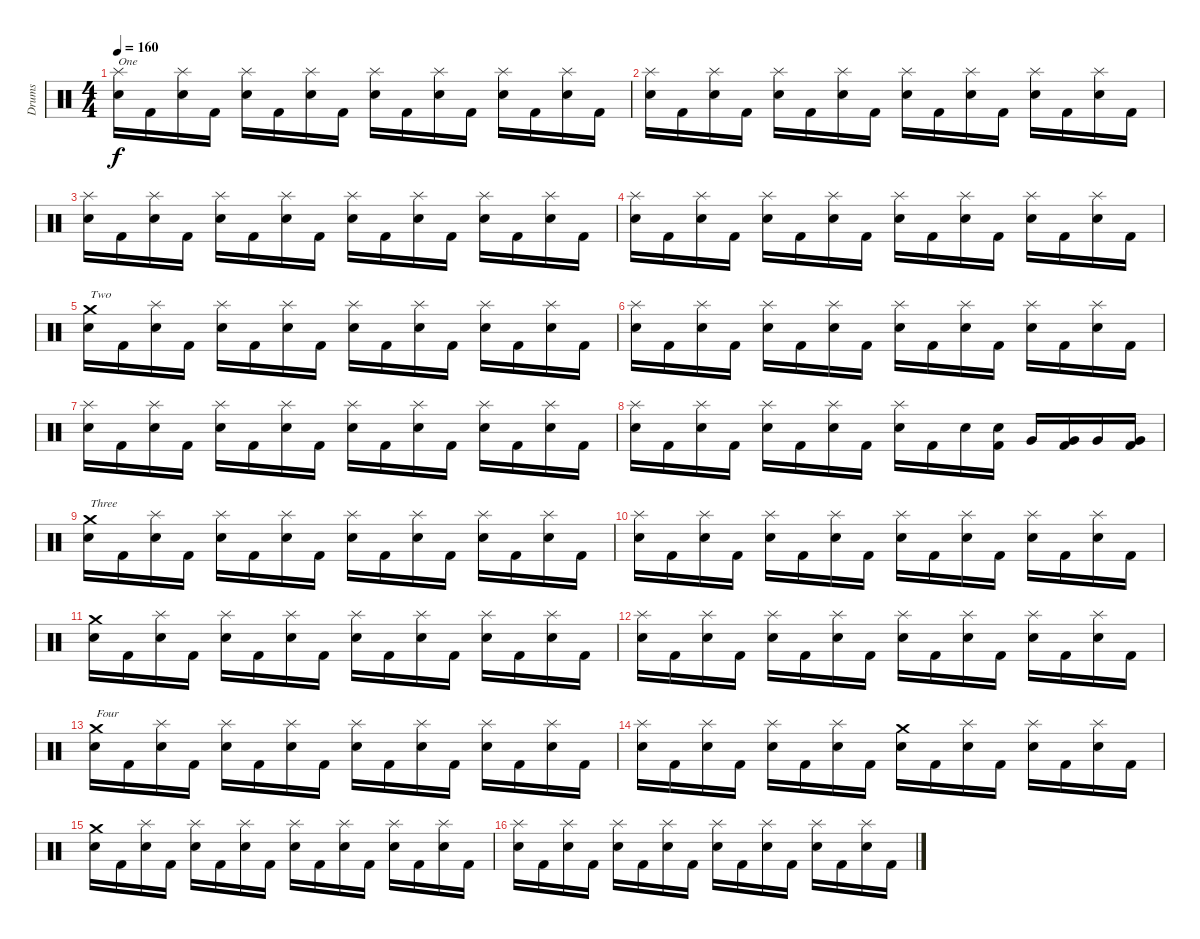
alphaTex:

\track ("Drums" "Drums") {instrument percussion}
\staff {score}
\articulation defaults
\ts (4 4)
\tempo 160
\clef neutral
\ks c
("Splash (hit)" "Snare (hit) 2").16{txt "One" dy f} "Kick (hit) 2".16 ("Splash (hit)" "Snare (hit) 2").16 "Kick (hit) 2".16 ("Splash (hit)" "Snare (hit) 2").16 "Kick (hit) 2".16 ("Splash (hit)" "Snare (hit) 2").16 "Kick (hit) 2".16 ("Splash (hit)" "Snare (hit) 2").16 "Kick (hit) 2".16 ("Splash (hit)" "Snare (hit) 2").16 "Kick (hit) 2".16 ("Splash (hit)" "Snare (hit) 2").16 "Kick (hit) 2".16 ("Splash (hit)" "Snare (hit) 2").16 "Kick (hit) 2".16 |
("Splash (hit)" "Snare (hit) 2").16 "Kick (hit) 2".16 ("Splash (hit)" "Snare (hit) 2").16 "Kick (hit) 2".16 ("Splash (hit)" "Snare (hit) 2").16 "Kick (hit) 2".16 ("Splash (hit)" "Snare (hit) 2").16 "Kick (hit) 2".16 ("Splash (hit)" "Snare (hit) 2").16 "Kick (hit) 2".16 ("Splash (hit)" "Snare (hit) 2").16 "Kick (hit) 2".16 ("Splash (hit)" "Snare (hit) 2").16 "Kick (hit) 2".16 ("Splash (hit)" "Snare (hit) 2").16 "Kick (hit) 2".16 |
("Splash (hit)" "Snare (hit) 2").16 "Kick (hit) 2".16 ("Splash (hit)" "Snare (hit) 2").16 "Kick (hit) 2".16 ("Splash (hit)" "Snare (hit) 2").16 "Kick (hit) 2".16 ("Splash (hit)" "Snare (hit) 2").16 "Kick (hit) 2".16 ("Splash (hit)" "Snare (hit) 2").16 "Kick (hit) 2".16 ("Splash (hit)" "Snare (hit) 2").16 "Kick (hit) 2".16 ("Splash (hit)" "Snare (hit) 2").16 "Kick (hit) 2".16 ("Splash (hit)" "Snare (hit) 2").16 "Kick (hit) 2".16 |
("Splash (hit)" "Snare (hit) 2").16 "Kick (hit) 2".16 ("Splash (hit)" "Snare (hit) 2").16 "Kick (hit) 2".16 ("Splash (hit)" "Snare (hit) 2").16 "Kick (hit) 2".16 ("Splash (hit)" "Snare (hit) 2").16 "Kick (hit) 2".16 ("Splash (hit)" "Snare (hit) 2").16 "Kick (hit) 2".16 ("Splash (hit)" "Snare (hit) 2").16 "Kick (hit) 2".16 ("Splash (hit)" "Snare (hit) 2").16 "Kick (hit) 2".16 ("Splash (hit)" "Snare (hit) 2").16 "Kick (hit) 2".16 |
("Crash medium (hit)" "Snare (hit) 2").16{txt "Two"} "Kick (hit) 2".16 ("Splash (hit)" "Snare (hit) 2").16 "Kick (hit) 2".16 ("Splash (hit)" "Snare (hit) 2").16 "Kick (hit) 2".16 ("Splash (hit)" "Snare (hit) 2").16 "Kick (hit) 2".16 ("Splash (hit)" "Snare (hit) 2").16 "Kick (hit) 2".16 ("Splash (hit)" "Snare (hit) 2").16 "Kick (hit) 2".16 ("Splash (hit)" "Snare (hit) 2").16 "Kick (hit) 2".16 ("Splash (hit)" "Snare (hit) 2").16 "Kick (hit) 2".16 |
("Splash (hit)" "Snare (hit) 2").16 "Kick (hit) 2".16 ("Splash (hit)" "Snare (hit) 2").16 "Kick (hit) 2".16 ("Splash (hit)" "Snare (hit) 2").16 "Kick (hit) 2".16 ("Splash (hit)" "Snare (hit) 2").16 "Kick (hit) 2".16 ("Splash (hit)" "Snare (hit) 2").16 "Kick (hit) 2".16 ("Splash (hit)" "Snare (hit) 2").16 "Kick (hit) 2".16 ("Splash (hit)" "Snare (hit) 2").16 "Kick (hit) 2".16 ("Splash (hit)" "Snare (hit) 2").16 "Kick (hit) 2".16 |
("Splash (hit)" "Snare (hit) 2").16 "Kick (hit) 2".16 ("Splash (hit)" "Snare (hit) 2").16 "Kick (hit) 2".16 ("Splash (hit)" "Snare (hit) 2").16 "Kick (hit) 2".16 ("Splash (hit)" "Snare (hit) 2").16 "Kick (hit) 2".16 ("Splash (hit)" "Snare (hit) 2").16 "Kick (hit) 2".16 ("Splash (hit)" "Snare (hit) 2").16 "Kick (hit) 2".16 ("Splash (hit)" "Snare (hit) 2").16 "Kick (hit) 2".16 ("Splash (hit)" "Snare (hit) 2").16 "Kick (hit) 2".16 |
("Splash (hit)" "Snare (hit) 2").16 "Kick (hit) 2".16 ("Splash (hit)" "Snare (hit) 2").16 "Kick (hit) 2".16 ("Splash (hit)" "Snare (hit) 2").16 "Kick (hit) 2".16 ("Splash (hit)" "Snare (hit) 2").16 "Kick (hit) 2".16 ("Splash (hit)" "Snare (hit) 2").16 "Kick (hit) 2".16 "Snare (hit) 2".16 ("Snare (hit) 2" "Kick (hit) 2").16 "Very Low Tom (hit)".16 ("Very Low Tom (hit)" "Kick (hit) 2").16 "Very Low Tom (hit)".16 ("Very Low Tom (hit)" "Kick (hit) 2").16 |
("Crash medium (hit)" "Snare (hit) 2").16{txt "Three"} "Kick (hit) 2".16 ("Splash (hit)" "Snare (hit) 2").16 "Kick (hit) 2".16 ("Splash (hit)" "Snare (hit) 2").16 "Kick (hit) 2".16 ("Splash (hit)" "Snare (hit) 2").16 "Kick (hit) 2".16 ("Splash (hit)" "Snare (hit) 2").16 "Kick (hit) 2".16 ("Splash (hit)" "Snare (hit) 2").16 "Kick (hit) 2".16 ("Splash (hit)" "Snare (hit) 2").16 "Kick (hit) 2".16 ("Splash (hit)" "Snare (hit) 2").16 "Kick (hit) 2".16 |
("Splash (hit)" "Snare (hit) 2").16 "Kick (hit) 2".16 ("Splash (hit)" "Snare (hit) 2").16 "Kick (hit) 2".16 ("Splash (hit)" "Snare (hit) 2").16 "Kick (hit) 2".16 ("Splash (hit)" "Snare (hit) 2").16 "Kick (hit) 2".16 ("Splash (hit)" "Snare (hit) 2").16 "Kick (hit) 2".16 ("Splash (hit)" "Snare (hit) 2").16 "Kick (hit) 2".16 ("Splash (hit)" "Snare (hit) 2").16 "Kick (hit) 2".16 ("Splash (hit)" "Snare (hit) 2").16 "Kick (hit) 2".16 |
("Crash medium (hit)" "Snare (hit) 2").16 "Kick (hit) 2".16 ("Splash (hit)" "Snare (hit) 2").16 "Kick (hit) 2".16 ("Splash (hit)" "Snare (hit) 2").16 "Kick (hit) 2".16 ("Splash (hit)" "Snare (hit) 2").16 "Kick (hit) 2".16 ("Splash (hit)" "Snare (hit) 2").16 "Kick (hit) 2".16 ("Splash (hit)" "Snare (hit) 2").16 "Kick (hit) 2".16 ("Splash (hit)" "Snare (hit) 2").16 "Kick (hit) 2".16 ("Splash (hit)" "Snare (hit) 2").16 "Kick (hit) 2".16 |
("Splash (hit)" "Snare (hit) 2").16 "Kick (hit) 2".16 ("Splash (hit)" "Snare (hit) 2").16 "Kick (hit) 2".16 ("Splash (hit)" "Snare (hit) 2").16 "Kick (hit) 2".16 ("Splash (hit)" "Snare (hit) 2").16 "Kick (hit) 2".16 ("Splash (hit)" "Snare (hit) 2").16 "Kick (hit) 2".16 ("Splash (hit)" "Snare (hit) 2").16 "Kick (hit) 2".16 ("Splash (hit)" "Snare (hit) 2").16 "Kick (hit) 2".16 ("Splash (hit)" "Snare (hit) 2").16 "Kick (hit) 2".16 |
("Crash medium (hit)" "Snare (hit) 2").16{txt "Four"} "Kick (hit) 2".16 ("Splash (hit)" "Snare (hit) 2").16 "Kick (hit) 2".16 ("Splash (hit)" "Snare (hit) 2").16 "Kick (hit) 2".16 ("Splash (hit)" "Snare (hit) 2").16 "Kick (hit) 2".16 ("Splash (hit)" "Snare (hit) 2").16 "Kick (hit) 2".16 ("Splash (hit)" "Snare (hit) 2").16 "Kick (hit) 2".16 ("Splash (hit)" "Snare (hit) 2").16 "Kick (hit) 2".16 ("Splash (hit)" "Snare (hit) 2").16 "Kick (hit) 2".16 |
("Splash (hit)" "Snare (hit) 2").16 "Kick (hit) 2".16 ("Splash (hit)" "Snare (hit) 2").16 "Kick (hit) 2".16 ("Splash (hit)" "Snare (hit) 2").16 "Kick (hit) 2".16 ("Splash (hit)" "Snare (hit) 2").16 "Kick (hit) 2".16 ("Crash medium (hit)" "Snare (hit) 2").16 "Kick (hit) 2".16 ("Splash (hit)" "Snare (hit) 2").16 "Kick (hit) 2".16 ("Splash (hit)" "Snare (hit) 2").16 "Kick (hit) 2".16 ("Splash (hit)" "Snare (hit) 2").16 "Kick (hit) 2".16 |
("Crash medium (hit)" "Snare (hit) 2").16 "Kick (hit) 2".16 ("Splash (hit)" "Snare (hit) 2").16 "Kick (hit) 2".16 ("Splash (hit)" "Snare (hit) 2").16 "Kick (hit) 2".16 ("Splash (hit)" "Snare (hit) 2").16 "Kick (hit) 2".16 ("Splash (hit)" "Snare (hit) 2").16 "Kick (hit) 2".16 ("Splash (hit)" "Snare (hit) 2").16 "Kick (hit) 2".16 ("Splash (hit)" "Snare (hit) 2").16 "Kick (hit) 2".16 ("Splash (hit)" "Snare (hit) 2").16 "Kick (hit) 2".16 |
("Splash (hit)" "Snare (hit) 2").16 "Kick (hit) 2".16 ("Splash (hit)" "Snare (hit) 2").16 "Kick (hit) 2".16 ("Splash (hit)" "Snare (hit) 2").16 "Kick (hit) 2".16 ("Splash (hit)" "Snare (hit) 2").16 "Kick (hit) 2".16 ("Splash (hit)" "Snare (hit) 2").16 "Kick (hit) 2".16 ("Splash (hit)" "Snare (hit) 2").16 "Kick (hit) 2".16 ("Splash (hit)" "Snare (hit) 2").16 "Kick (hit) 2".16 ("Splash (hit)" "Snare (hit) 2").16 "Kick (hit) 2".16
